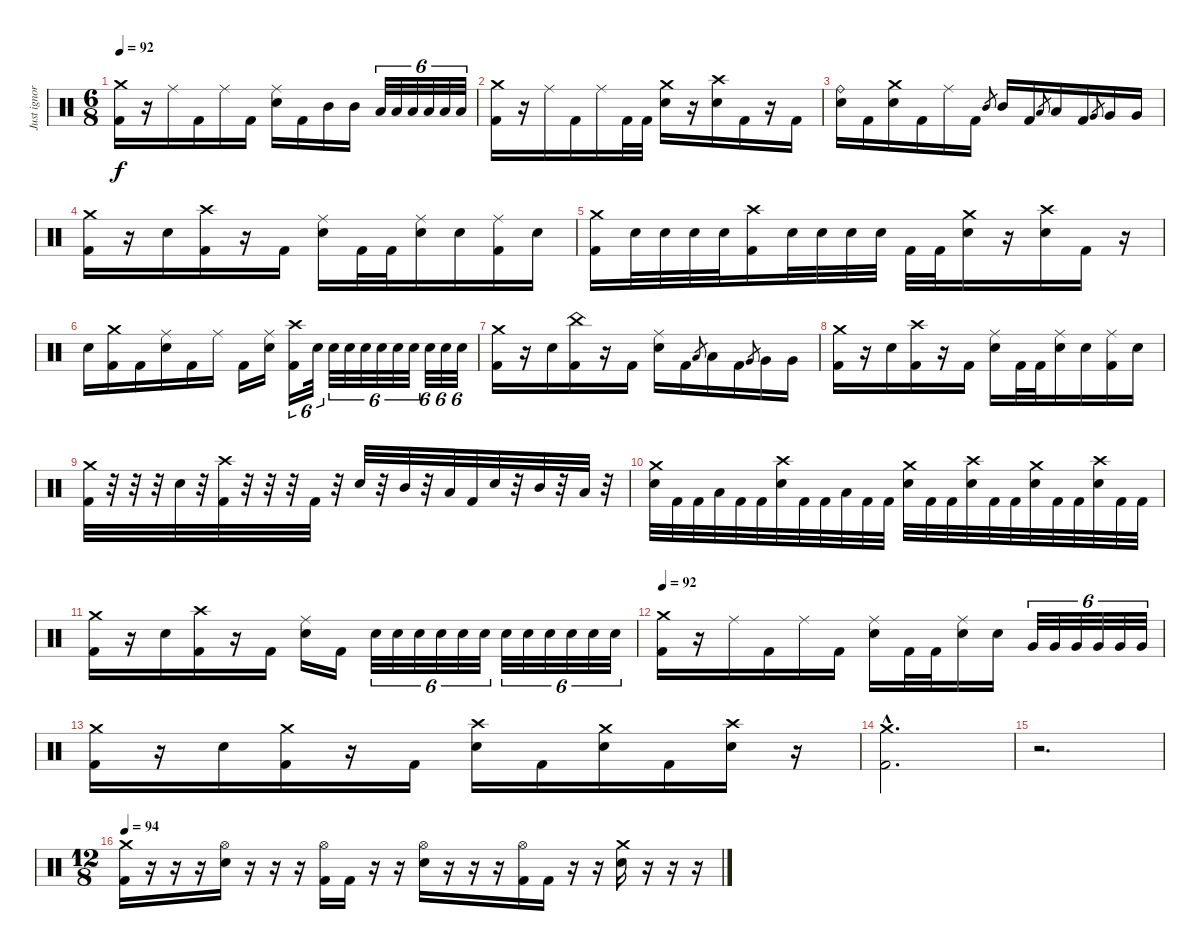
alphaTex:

\track ("Just ignore this track" "Just ignor") {instrument percussion}
\staff {score}
\articulation defaults
\ts (6 8)
\tempo 92
\clef neutral
\ks c
("Crash medium (hit)" "Kick (hit) 2").16{dy f} r.16 "Ride (middle)".16 "Kick (hit) 2".16 "Ride (middle)".16 "Kick (hit) 2".16 ("Ride (middle)" "Electric Snare (hit)").16 "Kick (hit) 2".16 "Mid Tom (hit)".16 "Mid Tom (hit)".16 "Low Tom (hit)".32{tu (6 4)} "Low Tom (hit)".32{tu (6 4)} "Low Tom (hit)".32{tu (6 4)} "Low Tom (hit)".32{tu (6 4)} "Low Tom (hit)".32{tu (6 4)} "Low Tom (hit)".32{tu (6 4)} |
("Crash medium (hit)" "Kick (hit) 2").16 r.16 "Ride (middle)".16 "Kick (hit) 2".16 "Ride (middle)".16 "Kick (hit) 2".32 "Kick (hit) 2".32 ("Crash medium (hit)" "Electric Snare (hit)").16 r.16 ("Crash high (hit)" "Electric Snare (hit)").16 "Kick (hit) 2".16 r.16 "Kick (hit) 2".16 |
("Ride (bell)" "Electric Snare (hit)").16 "Kick (hit) 2".16 ("Crash medium (hit)" "Electric Snare (hit)").16 "Kick (hit) 2".16 "Ride (middle)".16 "Kick (hit) 2".16 "Mid Tom (hit)".8{gr} "Mid Tom (hit)".16 "Kick (hit) 2".16 "Low Tom (hit)".8{gr} "Low Tom (hit)".16 "Kick (hit) 2".16 "Very Low Tom (hit)".8{gr} "Very Low Tom (hit)".16 "Very Low Tom (hit)".16 |
("Crash medium (hit)" "Kick (hit) 2").16 r.16 "Electric Snare (hit)".16 ("Crash high (hit)" "Kick (hit) 2").16 r.16 "Kick (hit) 2".16 ("Ride (middle)" "Electric Snare (hit)").16 "Kick (hit) 2".32 "Kick (hit) 2".32 ("Ride (middle)" "Electric Snare (hit)").16 "Electric Snare (hit)".16 ("Ride (middle)" "Kick (hit) 2").16 "Electric Snare (hit)".16 |
("Crash medium (hit)" "Kick (hit) 2").16 "Electric Snare (hit)".32 "Electric Snare (hit)".32 "Electric Snare (hit)".32 "Electric Snare (hit)".32 ("Crash high (hit)" "Kick (hit) 2").16 "Electric Snare (hit)".32 "Electric Snare (hit)".32 "Electric Snare (hit)".32 "Electric Snare (hit)".32 "Kick (hit) 2".32 "Kick (hit) 2".32 ("Crash medium (hit)" "Electric Snare (hit)").16 r.16 ("Crash high (hit)" "Electric Snare (hit)").16 "Kick (hit) 2".16 r.16 |
"Electric Snare (hit)".16 ("Crash medium (hit)" "Kick (hit) 2").16 "Kick (hit) 2".16 ("Ride (middle)" "Electric Snare (hit)").16 "Kick (hit) 2".16 "Ride (middle)".16 "Kick (hit) 2".16 ("Ride (middle)" "Electric Snare (hit)").16 ("Crash high (hit)" "Kick (hit) 2").16{tu (6 4)} "Electric Snare (hit)".32{tu (6 4)} "Electric Snare (hit)".32{tu (6 4)} "Electric Snare (hit)".32{tu (6 4)} "Electric Snare (hit)".32{tu (6 4)} "Electric Snare (hit)".32{tu (6 4)} "Electric Snare (hit)".32{tu (6 4)} "Electric Snare (hit)".32{tu (6 4)} "Electric Snare (hit)".32{tu (6 4)} "Electric Snare (hit)".32{tu (6 4)} "Electric Snare (hit)".32{tu (6 4)} |
("Crash medium (hit)" "Kick (hit) 2").16 r.16 "Electric Snare (hit)".16 ("China (hit)" "Kick (hit) 2").16 r.16 "Kick (hit) 2".16 ("Ride (middle)" "Electric Snare (hit)").16 "Kick (hit) 2".16 "Low Tom (hit)".8{gr} "Low Tom (hit)".16 "Kick (hit) 2".16 "Very Low Tom (hit)".8{gr} "Very Low Tom (hit)".16 "Very Low Tom (hit)".16 |
("Crash medium (hit)" "Kick (hit) 2").16 r.16 "Electric Snare (hit)".16 ("Crash high (hit)" "Kick (hit) 2").16 r.16 "Kick (hit) 2".16 ("Ride (middle)" "Electric Snare (hit)").16 "Kick (hit) 2".32 "Kick (hit) 2".32 ("Ride (middle)" "Electric Snare (hit)").16 "Electric Snare (hit)".16 ("Ride (middle)" "Kick (hit) 2").16 "Electric Snare (hit)".16 |
("Crash medium (hit)" "Kick (hit) 2").32 r.32 r.32 r.32 "Electric Snare (hit)".32 r.32 ("Crash high (hit)" "Kick (hit) 2").32 r.32 r.32 r.32 "Kick (hit) 2".32 r.32 "Electric Snare (hit)".32 r.32 "Mid Tom (hit)".32 r.32 "Low Tom (hit)".32 "Kick (hit) 2".32 "Electric Snare (hit)".32 r.32 "Mid Tom (hit)".32 r.32 "Low Tom (hit)".32 r.32 |
("Crash medium (hit)" "Electric Snare (hit)").32 "Kick (hit) 2".32 "Kick (hit) 2".32 "Low Floor Tom (hit)".32 "Kick (hit) 2".32 "Kick (hit) 2".32 ("Crash high (hit)" "Electric Snare (hit)").32 "Kick (hit) 2".32 "Kick (hit) 2".32 "Low Floor Tom (hit)".32 "Kick (hit) 2".32 "Kick (hit) 2".32 ("Crash medium (hit)" "Electric Snare (hit)").32 "Kick (hit) 2".32 "Kick (hit) 2".32 ("Crash high (hit)" "Electric Snare (hit)").32 "Kick (hit) 2".32 "Kick (hit) 2".32 ("Crash medium (hit)" "Electric Snare (hit)").32 "Kick (hit) 2".32 "Kick (hit) 2".32 ("Crash high (hit)" "Electric Snare (hit)").32 "Kick (hit) 2".32 "Kick (hit) 2".32 |
("Crash medium (hit)" "Kick (hit) 2").16 r.16 "Electric Snare (hit)".16 ("Crash high (hit)" "Kick (hit) 2").16 r.16 "Kick (hit) 2".16 ("Ride (middle)" "Electric Snare (hit)").16 "Kick (hit) 2".16 "Electric Snare (hit)".32{tu (6 4)} "Electric Snare (hit)".32{tu (6 4)} "Electric Snare (hit)".32{tu (6 4)} "Electric Snare (hit)".32{tu (6 4)} "Electric Snare (hit)".32{tu (6 4)} "Electric Snare (hit)".32{tu (6 4)} "Electric Snare (hit)".32{tu (6 4)} "Electric Snare (hit)".32{tu (6 4)} "Electric Snare (hit)".32{tu (6 4)} "Electric Snare (hit)".32{tu (6 4)} "Electric Snare (hit)".32{tu (6 4)} "Electric Snare (hit)".32{tu (6 4)} |
\tempo 92
("Crash medium (hit)" "Kick (hit) 2").16 r.16 "Ride (middle)".16 "Kick (hit) 2".16 "Ride (middle)".16 "Kick (hit) 2".16 ("Ride (middle)" "Electric Snare (hit)").16 "Kick (hit) 2".32 "Kick (hit) 2".32 ("Ride (middle)" "Electric Snare (hit)").16 "Electric Snare (hit)".16 "Very Low Tom (hit)".32{tu (6 4)} "Very Low Tom (hit)".32{tu (6 4)} "Very Low Tom (hit)".32{tu (6 4)} "Very Low Tom (hit)".32{tu (6 4)} "Very Low Tom (hit)".32{tu (6 4)} "Very Low Tom (hit)".32{tu (6 4)} |
("Crash medium (hit)" "Kick (hit) 2").16 r.16 "Electric Snare (hit)".16 ("Crash medium (hit)" "Kick (hit) 2").16 r.16 "Kick (hit) 2".16 ("Crash high (hit)" "Electric Snare (hit)").16 "Kick (hit) 2".16 ("Crash medium (hit)" "Electric Snare (hit)").16 "Kick (hit) 2".16 ("Crash high (hit)" "Electric Snare (hit)").16 r.16 |
("Crash medium (hit)"{hac} "Kick (hit) 2"{hac}).2{d} |
r.2{d} |
\ts (12 8)
\tempo 94
("Crash medium (hit)" "Kick (hit) 2").16 r.16 r.16 r.16 ("Hi-Hat (open)" "Electric Snare (hit)").16 r.16 r.16 r.16 ("Hi-Hat (open)" "Kick (hit) 2").16 "Kick (hit) 2".16 r.16 r.16 ("Hi-Hat (open)" "Electric Snare (hit)").16 r.16 r.16 r.16 ("Hi-Hat (open)" "Kick (hit) 2").16 "Kick (hit) 2".16 r.16 r.16 ("Crash medium (hit)" "Electric Snare (hit)").16 r.16 r.16 r.16
